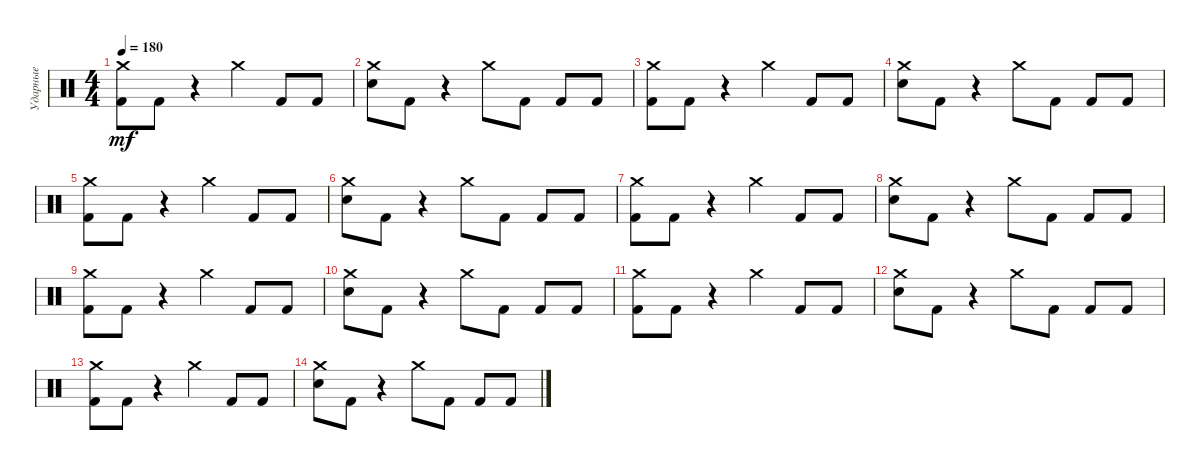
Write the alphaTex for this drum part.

\track ("Ударные" "Ударные") {instrument percussion}
\staff {score}
\articulation defaults
\ts (4 4)
\tempo 180
\clef neutral
\ks c
("Crash medium (hit)" "Kick (hit) 2").8{dy mf} "Kick (hit) 2".8 r.4 "Crash medium (hit)".4 "Kick (hit) 2".8 "Kick (hit) 2".8 |
("Crash medium (hit)" "Electric Snare (hit)").8 "Kick (hit) 2".8 r.4 "Crash medium (hit)".8 "Kick (hit) 2".8 "Kick (hit) 2".8 "Kick (hit) 2".8 |
("Crash medium (hit)" "Kick (hit) 2").8 "Kick (hit) 2".8 r.4 "Crash medium (hit)".4 "Kick (hit) 2".8 "Kick (hit) 2".8 |
("Crash medium (hit)" "Electric Snare (hit)").8 "Kick (hit) 2".8 r.4 "Crash medium (hit)".8 "Kick (hit) 2".8 "Kick (hit) 2".8 "Kick (hit) 2".8 |
("Crash medium (hit)" "Kick (hit) 2").8 "Kick (hit) 2".8 r.4 "Crash medium (hit)".4 "Kick (hit) 2".8 "Kick (hit) 2".8 |
("Crash medium (hit)" "Electric Snare (hit)").8 "Kick (hit) 2".8 r.4 "Crash medium (hit)".8 "Kick (hit) 2".8 "Kick (hit) 2".8 "Kick (hit) 2".8 |
("Crash medium (hit)" "Kick (hit) 2").8 "Kick (hit) 2".8 r.4 "Crash medium (hit)".4 "Kick (hit) 2".8 "Kick (hit) 2".8 |
("Crash medium (hit)" "Electric Snare (hit)").8 "Kick (hit) 2".8 r.4 "Crash medium (hit)".8 "Kick (hit) 2".8 "Kick (hit) 2".8 "Kick (hit) 2".8 |
("Crash medium (hit)" "Kick (hit) 2").8 "Kick (hit) 2".8 r.4 "Crash medium (hit)".4 "Kick (hit) 2".8 "Kick (hit) 2".8 |
("Crash medium (hit)" "Electric Snare (hit)").8 "Kick (hit) 2".8 r.4 "Crash medium (hit)".8 "Kick (hit) 2".8 "Kick (hit) 2".8 "Kick (hit) 2".8 |
("Crash medium (hit)" "Kick (hit) 2").8 "Kick (hit) 2".8 r.4 "Crash medium (hit)".4 "Kick (hit) 2".8 "Kick (hit) 2".8 |
("Crash medium (hit)" "Electric Snare (hit)").8 "Kick (hit) 2".8 r.4 "Crash medium (hit)".8 "Kick (hit) 2".8 "Kick (hit) 2".8 "Kick (hit) 2".8 |
("Crash medium (hit)" "Kick (hit) 2").8 "Kick (hit) 2".8 r.4 "Crash medium (hit)".4 "Kick (hit) 2".8 "Kick (hit) 2".8 |
("Crash medium (hit)" "Electric Snare (hit)").8 "Kick (hit) 2".8 r.4 "Crash medium (hit)".8 "Kick (hit) 2".8 "Kick (hit) 2".8 "Kick (hit) 2".8
